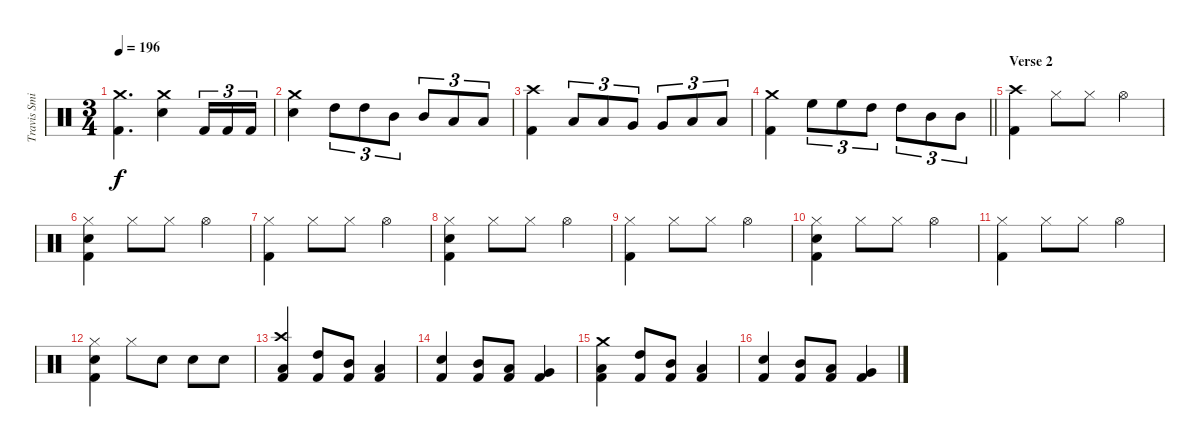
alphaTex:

\track ("Travis Smith" "Travis Smi") {instrument percussion}
\staff {score}
\articulation defaults
\ts (3 4)
\tempo 196
\clef neutral
\ks c
("Crash medium (hit)" "Kick (hit) 2").4{d dy f} ("Crash medium (hit)" "Electric Snare (hit)").4 "Kick (hit) 2".16{tu (3 2)} "Kick (hit) 2".16{tu (3 2)} "Kick (hit) 2".16{tu (3 2)} |
("Crash medium (hit)" "Electric Snare (hit)").4 "High Tom (hit)".8{tu (3 2)} "High Tom (hit)".8{tu (3 2)} "Mid Tom (hit)".8{tu (3 2)} "Mid Tom (hit)".8{tu (3 2)} "Low Tom (hit)".8{tu (3 2)} "Low Tom (hit)".8{tu (3 2)} |
("Crash high (hit)" "Kick (hit) 2").4 "Low Tom (hit)".8{tu (3 2)} "Low Tom (hit)".8{tu (3 2)} "Very Low Tom (hit)".8{tu (3 2)} "Very Low Tom (hit)".8{tu (3 2)} "Low Floor Tom (hit)".8{tu (3 2)} "Low Floor Tom (hit)".8{tu (3 2)} |
\barLineRight lightlight
("Crash medium (hit)" "Kick (hit) 2").4 "High Floor Tom (hit)".8{tu (3 2)} "High Floor Tom (hit)".8{tu (3 2)} "High Tom (hit)".8{tu (3 2)} "High Tom (hit)".8{tu (3 2)} "Mid Tom (hit)".8{tu (3 2)} "Mid Tom (hit)".8{tu (3 2)} |
\section ("" "Verse 2")
("Crash high (hit)" "Kick (hit) 2").4 "Hi-Hat (closed)".8 "Hi-Hat (closed)".8 "Hi-Hat (open)".4 |
("Hi-Hat (closed)" "Electric Snare (hit)" "Kick (hit) 2").4 "Hi-Hat (closed)".8 "Hi-Hat (closed)".8 "Hi-Hat (open)".4 |
("Hi-Hat (closed)" "Kick (hit) 2").4 "Hi-Hat (closed)".8 "Hi-Hat (closed)".8 "Hi-Hat (open)".4 |
("Hi-Hat (closed)" "Electric Snare (hit)" "Kick (hit) 2").4 "Hi-Hat (closed)".8 "Hi-Hat (closed)".8 "Hi-Hat (open)".4 |
("Hi-Hat (closed)" "Kick (hit) 2").4 "Hi-Hat (closed)".8 "Hi-Hat (closed)".8 "Hi-Hat (open)".4 |
("Hi-Hat (closed)" "Electric Snare (hit)" "Kick (hit) 2").4 "Hi-Hat (closed)".8 "Hi-Hat (closed)".8 "Hi-Hat (open)".4 |
("Hi-Hat (closed)" "Kick (hit) 2").4 "Hi-Hat (closed)".8 "Hi-Hat (closed)".8 "Hi-Hat (open)".4 |
("Hi-Hat (closed)" "Electric Snare (hit)" "Kick (hit) 2").4 "Hi-Hat (closed)".8 "Electric Snare (hit)".8 "Electric Snare (hit)".8 "Electric Snare (hit)".8 |
("Crash high (hit)" "Low Floor Tom (hit)" "Kick (hit) 2").4 ("High Tom (hit)" "Kick (hit) 2").8 ("Mid Tom (hit)" "Kick (hit) 2").8 ("Low Tom (hit)" "Kick (hit) 2").4 |
("Electric Snare (hit)" "Kick (hit) 2").4 ("Mid Tom (hit)" "Kick (hit) 2").8 ("Low Tom (hit)" "Kick (hit) 2").8 ("Very Low Tom (hit)" "Kick (hit) 2").4 |
("Crash medium (hit)" "Low Floor Tom (hit)" "Kick (hit) 2").4 ("High Tom (hit)" "Kick (hit) 2").8 ("Mid Tom (hit)" "Kick (hit) 2").8 ("Low Tom (hit)" "Kick (hit) 2").4 |
("Electric Snare (hit)" "Kick (hit) 2").4 ("Mid Tom (hit)" "Kick (hit) 2").8 ("Low Tom (hit)" "Kick (hit) 2").8 ("Very Low Tom (hit)" "Kick (hit) 2").4
